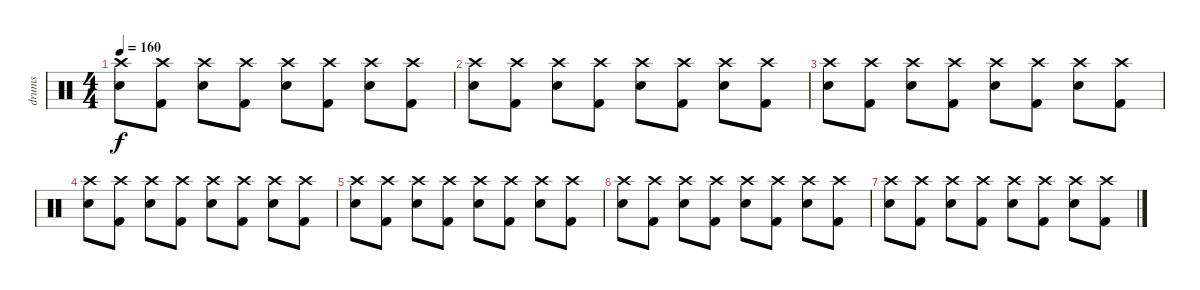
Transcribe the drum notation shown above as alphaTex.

\track ("drums" "drums") {instrument percussion}
\staff {score}
\articulation defaults
\ts (4 4)
\tempo 160
\clef neutral
\ks c
("Crash high (hit)" "Electric Snare (hit)").8{dy f} ("Crash high (hit)" "Kick (hit) 2").8 ("Crash high (hit)" "Electric Snare (hit)").8 ("Crash high (hit)" "Kick (hit) 2").8 ("Crash high (hit)" "Electric Snare (hit)").8 ("Crash high (hit)" "Kick (hit) 2").8 ("Crash high (hit)" "Electric Snare (hit)").8 ("Crash high (hit)" "Kick (hit) 2").8 |
("Crash high (hit)" "Electric Snare (hit)").8 ("Crash high (hit)" "Kick (hit) 2").8 ("Crash high (hit)" "Electric Snare (hit)").8 ("Crash high (hit)" "Kick (hit) 2").8 ("Crash high (hit)" "Electric Snare (hit)").8 ("Crash high (hit)" "Kick (hit) 2").8 ("Crash high (hit)" "Electric Snare (hit)").8 ("Crash high (hit)" "Kick (hit) 2").8 |
("Crash high (hit)" "Electric Snare (hit)").8 ("Crash high (hit)" "Kick (hit) 2").8 ("Crash high (hit)" "Electric Snare (hit)").8 ("Crash high (hit)" "Kick (hit) 2").8 ("Crash high (hit)" "Electric Snare (hit)").8 ("Crash high (hit)" "Kick (hit) 2").8 ("Crash high (hit)" "Electric Snare (hit)").8 ("Crash high (hit)" "Kick (hit) 2").8 |
("Crash high (hit)" "Electric Snare (hit)").8 ("Crash high (hit)" "Kick (hit) 2").8 ("Crash high (hit)" "Electric Snare (hit)").8 ("Crash high (hit)" "Kick (hit) 2").8 ("Crash high (hit)" "Electric Snare (hit)").8 ("Crash high (hit)" "Kick (hit) 2").8 ("Crash high (hit)" "Electric Snare (hit)").8 ("Crash high (hit)" "Kick (hit) 2").8 |
("Crash high (hit)" "Electric Snare (hit)").8 ("Crash high (hit)" "Kick (hit) 2").8 ("Crash high (hit)" "Electric Snare (hit)").8 ("Crash high (hit)" "Kick (hit) 2").8 ("Crash high (hit)" "Electric Snare (hit)").8 ("Crash high (hit)" "Kick (hit) 2").8 ("Crash high (hit)" "Electric Snare (hit)").8 ("Crash high (hit)" "Kick (hit) 2").8 |
("Crash high (hit)" "Electric Snare (hit)").8 ("Crash high (hit)" "Kick (hit) 2").8 ("Crash high (hit)" "Electric Snare (hit)").8 ("Crash high (hit)" "Kick (hit) 2").8 ("Crash high (hit)" "Electric Snare (hit)").8 ("Crash high (hit)" "Kick (hit) 2").8 ("Crash high (hit)" "Electric Snare (hit)").8 ("Crash high (hit)" "Kick (hit) 2").8 |
("Crash high (hit)" "Electric Snare (hit)").8 ("Crash high (hit)" "Kick (hit) 2").8 ("Crash high (hit)" "Electric Snare (hit)").8 ("Crash high (hit)" "Kick (hit) 2").8 ("Crash high (hit)" "Electric Snare (hit)").8 ("Crash high (hit)" "Kick (hit) 2").8 ("Crash high (hit)" "Electric Snare (hit)").8 ("Crash high (hit)" "Kick (hit) 2").8
